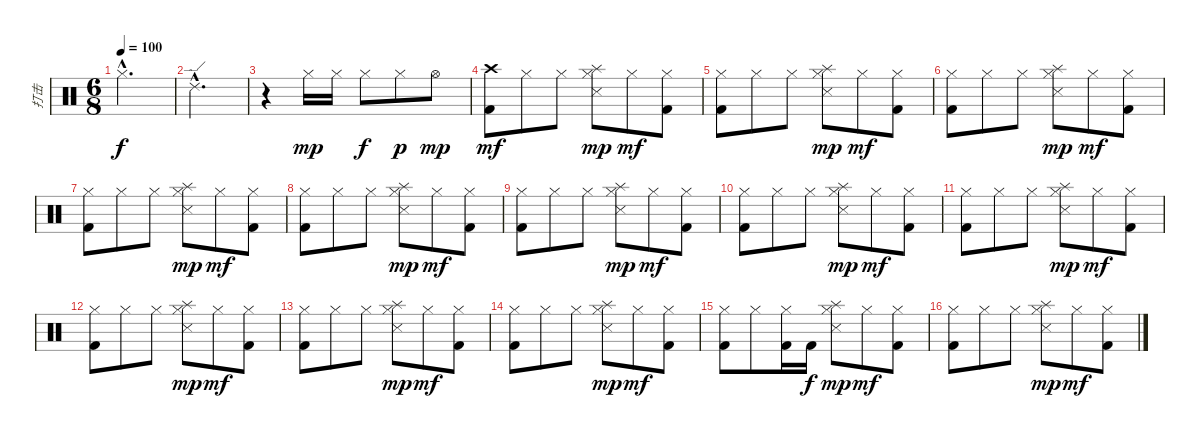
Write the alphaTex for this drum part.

\track ("打击" "打击") {instrument percussion}
\staff {score}
\articulation defaults
\ts (6 8)
\tempo 100
\clef neutral
\ks c "Hi-Hat (closed)"{hac}.2{d dy f}
|
"Ride (edge) 2"{hac}.2{d} |
r.4 "Hi-Hat (closed)".16{dy mp} "Hi-Hat (closed)".16 "Hi-Hat (closed)".8{dy f} "Hi-Hat (closed)".8{dy p} "Hi-Hat (open)".8{dy mp} |
("Crash high (hit)" "Kick (hit) 2").8{dy mf} "Hi-Hat (closed)".8 "Hi-Hat (closed)".8 ("Hi-Hat (closed)" "Splash (hit)" "Snare (side stick) 3").8{dy mp} "Hi-Hat (closed)".8{dy mf} ("Hi-Hat (closed)" "Kick (hit) 2").8 |
("Hi-Hat (closed)" "Kick (hit) 2").8 "Hi-Hat (closed)".8 "Hi-Hat (closed)".8 ("Hi-Hat (closed)" "Splash (hit)" "Snare (side stick) 3").8{dy mp} "Hi-Hat (closed)".8{dy mf} ("Hi-Hat (closed)" "Kick (hit) 2").8 |
("Hi-Hat (closed)" "Kick (hit) 2").8 "Hi-Hat (closed)".8 "Hi-Hat (closed)".8 ("Hi-Hat (closed)" "Splash (hit)" "Snare (side stick) 3").8{dy mp} "Hi-Hat (closed)".8{dy mf} ("Hi-Hat (closed)" "Kick (hit) 2").8 |
("Hi-Hat (closed)" "Kick (hit) 2").8 "Hi-Hat (closed)".8 "Hi-Hat (closed)".8 ("Hi-Hat (closed)" "Splash (hit)" "Snare (side stick) 3").8{dy mp} "Hi-Hat (closed)".8{dy mf} ("Hi-Hat (closed)" "Kick (hit) 2").8 |
("Hi-Hat (closed)" "Kick (hit) 2").8 "Hi-Hat (closed)".8 "Hi-Hat (closed)".8 ("Hi-Hat (closed)" "Splash (hit)" "Snare (side stick) 3").8{dy mp} "Hi-Hat (closed)".8{dy mf} ("Hi-Hat (closed)" "Kick (hit) 2").8 |
("Hi-Hat (closed)" "Kick (hit) 2").8 "Hi-Hat (closed)".8 "Hi-Hat (closed)".8 ("Hi-Hat (closed)" "Splash (hit)" "Snare (side stick) 3").8{dy mp} "Hi-Hat (closed)".8{dy mf} ("Hi-Hat (closed)" "Kick (hit) 2").8 |
("Hi-Hat (closed)" "Kick (hit) 2").8 "Hi-Hat (closed)".8 "Hi-Hat (closed)".8 ("Hi-Hat (closed)" "Splash (hit)" "Snare (side stick) 3").8{dy mp} "Hi-Hat (closed)".8{dy mf} ("Hi-Hat (closed)" "Kick (hit) 2").8 |
("Hi-Hat (closed)" "Kick (hit) 2").8 "Hi-Hat (closed)".8 "Hi-Hat (closed)".8 ("Hi-Hat (closed)" "Splash (hit)" "Snare (side stick) 3").8{dy mp} "Hi-Hat (closed)".8{dy mf} ("Hi-Hat (closed)" "Kick (hit) 2").8 |
("Hi-Hat (closed)" "Kick (hit) 2").8 "Hi-Hat (closed)".8 "Hi-Hat (closed)".8 ("Hi-Hat (closed)" "Splash (hit)" "Snare (side stick) 3").8{dy mp} "Hi-Hat (closed)".8{dy mf} ("Hi-Hat (closed)" "Kick (hit) 2").8 |
("Hi-Hat (closed)" "Kick (hit) 2").8 "Hi-Hat (closed)".8 "Hi-Hat (closed)".8 ("Hi-Hat (closed)" "Splash (hit)" "Snare (side stick) 3").8{dy mp} "Hi-Hat (closed)".8{dy mf} ("Hi-Hat (closed)" "Kick (hit) 2").8 |
("Hi-Hat (closed)" "Kick (hit) 2").8 "Hi-Hat (closed)".8 "Hi-Hat (closed)".8 ("Hi-Hat (closed)" "Splash (hit)" "Snare (side stick) 3").8{dy mp} "Hi-Hat (closed)".8{dy mf} ("Hi-Hat (closed)" "Kick (hit) 2").8 |
("Hi-Hat (closed)" "Kick (hit) 2").8 "Hi-Hat (closed)".8 ("Hi-Hat (closed)" "Kick (hit) 2").16 "Kick (hit) 2".16{dy f} ("Hi-Hat (closed)" "Splash (hit)" "Snare (side stick) 3").8{dy mp} "Hi-Hat (closed)".8{dy mf} ("Hi-Hat (closed)" "Kick (hit) 2").8 |
("Hi-Hat (closed)" "Kick (hit) 2").8 "Hi-Hat (closed)".8 "Hi-Hat (closed)".8 ("Hi-Hat (closed)" "Splash (hit)" "Snare (side stick) 3").8{dy mp} "Hi-Hat (closed)".8{dy mf} ("Hi-Hat (closed)" "Kick (hit) 2").8
